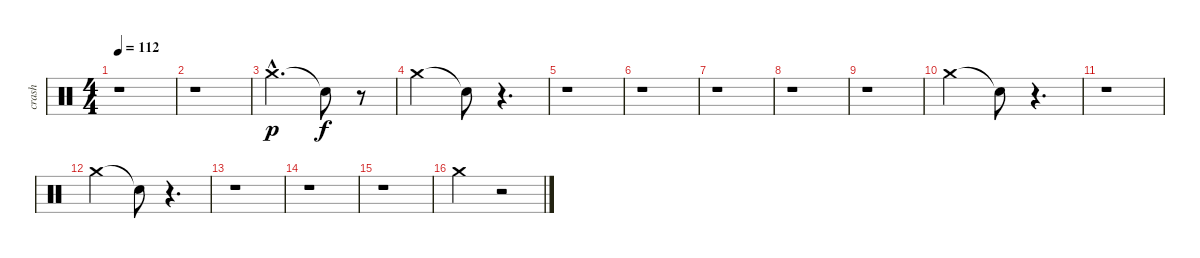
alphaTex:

\track ("crash" "crash") {instrument percussion}
\staff {score}
\articulation defaults
\ts (4 4)
\tempo 112
\clef neutral
\ks c
r.1{dy f} |
r.1 |
"Crash medium (hit)"{hac}.2{d dy p} "Snare (hit)"{t}.8{dy f} r.8 |
"Crash medium (hit)".2 "Snare (hit)"{t}.8 r.4{d} |
r.1 |
r.1 |
r.1 |
r.1 |
r.1 |
"Crash medium (hit)".2 "Snare (hit)"{t}.8 r.4{d} |
r.1 |
"Crash medium (hit)".2 "Snare (hit)"{t}.8 r.4{d} |
r.1 |
r.1 |
r.1 |
"Crash medium (hit)".2 r.2
